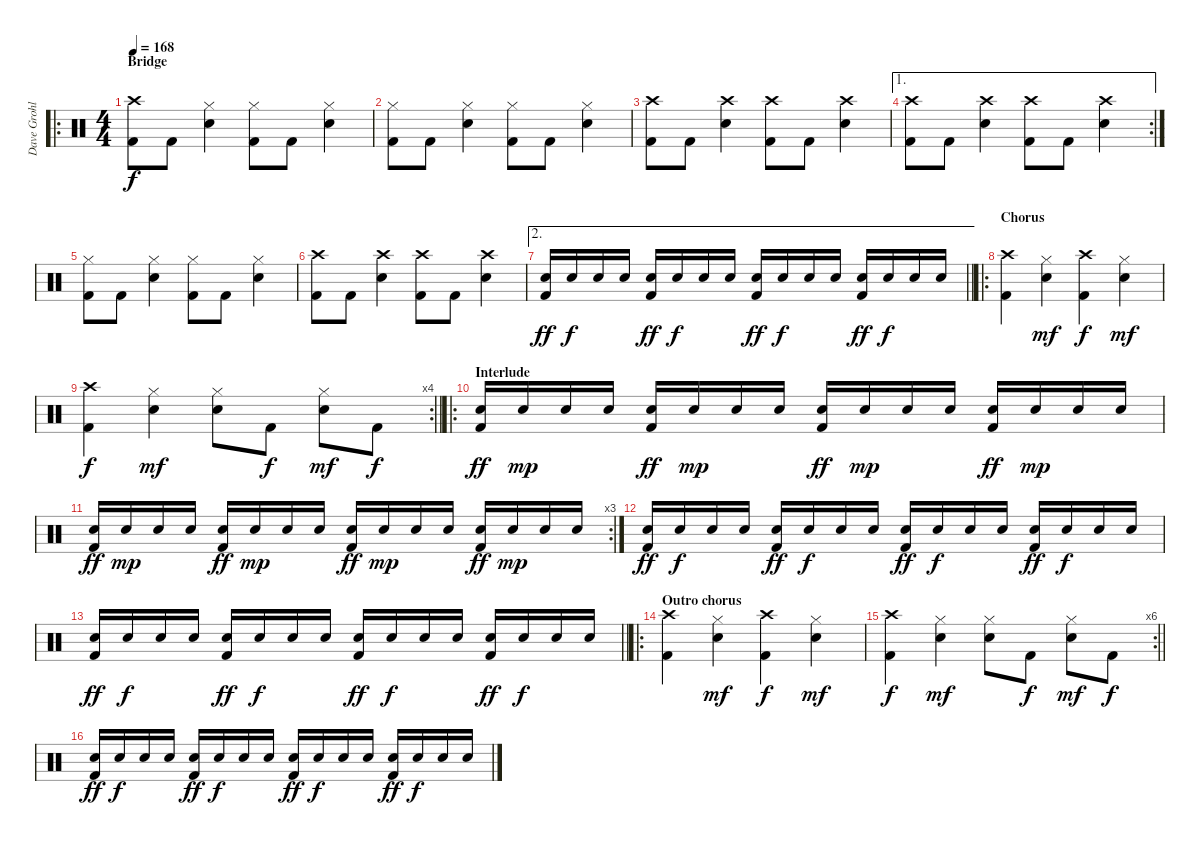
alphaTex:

\track ("Dave Grohl - Drums" "Dave Grohl") {instrument percussion}
\staff {score}
\articulation defaults
\ro
\ts (4 4)
\section ("" "Bridge")
\tempo 168
\clef neutral
\ks c
("Crash high (hit)" "Kick (hit) 2").8{dy f} "Kick (hit) 2".8 ("Hi-Hat (closed)" "Electric Snare (hit)").4 ("Hi-Hat (closed)" "Kick (hit) 2").8 "Kick (hit) 2".8 ("Hi-Hat (closed)" "Electric Snare (hit)").4 |
("Hi-Hat (closed)" "Kick (hit) 2").8 "Kick (hit) 2".8 ("Hi-Hat (closed)" "Electric Snare (hit)").4 ("Hi-Hat (closed)" "Kick (hit) 2").8 "Kick (hit) 2".8 ("Hi-Hat (closed)" "Electric Snare (hit)").4 |
("Crash high (hit)" "Kick (hit) 2").8 "Kick (hit) 2".8 ("Crash high (hit)" "Electric Snare (hit)").4 ("Crash high (hit)" "Kick (hit) 2").8 "Kick (hit) 2".8 ("Crash high (hit)" "Electric Snare (hit)").4 |
\ae 1
\rc 2
("Crash high (hit)" "Kick (hit) 2").8 "Kick (hit) 2".8 ("Crash high (hit)" "Electric Snare (hit)").4 ("Crash high (hit)" "Kick (hit) 2").8 "Kick (hit) 2".8 ("Crash high (hit)" "Electric Snare (hit)").4 |
("Hi-Hat (closed)" "Kick (hit) 2").8 "Kick (hit) 2".8 ("Hi-Hat (closed)" "Electric Snare (hit)").4 ("Hi-Hat (closed)" "Kick (hit) 2").8 "Kick (hit) 2".8 ("Hi-Hat (closed)" "Electric Snare (hit)").4 |
("Crash high (hit)" "Kick (hit) 2").8 "Kick (hit) 2".8 ("Crash high (hit)" "Electric Snare (hit)").4 ("Crash high (hit)" "Kick (hit) 2").8 "Kick (hit) 2".8 ("Crash high (hit)" "Electric Snare (hit)").4 |
\ae 2
\barLineRight lightlight
("Electric Snare (hit)" "Kick (hit) 2").16{dy ff} "Electric Snare (hit)".16{dy f} "Electric Snare (hit)".16 "Electric Snare (hit)".16 ("Electric Snare (hit)" "Kick (hit) 2").16{dy ff} "Electric Snare (hit)".16{dy f} "Electric Snare (hit)".16 "Electric Snare (hit)".16 ("Electric Snare (hit)" "Kick (hit) 2").16{dy ff} "Electric Snare (hit)".16{dy f} "Electric Snare (hit)".16 "Electric Snare (hit)".16 ("Electric Snare (hit)" "Kick (hit) 2").16{dy ff} "Electric Snare (hit)".16{dy f} "Electric Snare (hit)".16 "Electric Snare (hit)".16 |
\ro
\section ("" "Chorus")
("Crash high (hit)" "Kick (hit) 2").4{volume 13} ("Hi-Hat (closed)" "Electric Snare (hit)").4{dy mf} ("Crash high (hit)" "Kick (hit) 2").4{dy f} ("Hi-Hat (closed)" "Electric Snare (hit)").4{dy mf} |
\rc 4
\barLineRight lightlight
("Crash high (hit)" "Kick (hit) 2").4{dy f} ("Hi-Hat (closed)" "Electric Snare (hit)").4{dy mf} ("Hi-Hat (closed)" "Electric Snare (hit)").8 "Kick (hit) 2".8{dy f} ("Hi-Hat (closed)" "Electric Snare (hit)").8{dy mf} "Kick (hit) 2".8{dy f} |
\ro
\section ("" "Interlude")
("Electric Snare (hit)" "Kick (hit) 2").16{dy ff} "Electric Snare (hit)".16{dy mp} "Electric Snare (hit)".16 "Electric Snare (hit)".16 ("Electric Snare (hit)" "Kick (hit) 2").16{dy ff} "Electric Snare (hit)".16{dy mp} "Electric Snare (hit)".16 "Electric Snare (hit)".16 ("Electric Snare (hit)" "Kick (hit) 2").16{dy ff} "Electric Snare (hit)".16{dy mp} "Electric Snare (hit)".16 "Electric Snare (hit)".16 ("Electric Snare (hit)" "Kick (hit) 2").16{dy ff} "Electric Snare (hit)".16{dy mp} "Electric Snare (hit)".16 "Electric Snare (hit)".16 |
\rc 3
("Electric Snare (hit)" "Kick (hit) 2").16{dy ff} "Electric Snare (hit)".16{dy mp} "Electric Snare (hit)".16 "Electric Snare (hit)".16 ("Electric Snare (hit)" "Kick (hit) 2").16{dy ff} "Electric Snare (hit)".16{dy mp} "Electric Snare (hit)".16 "Electric Snare (hit)".16 ("Electric Snare (hit)" "Kick (hit) 2").16{dy ff} "Electric Snare (hit)".16{dy mp} "Electric Snare (hit)".16 "Electric Snare (hit)".16 ("Electric Snare (hit)" "Kick (hit) 2").16{dy ff} "Electric Snare (hit)".16{dy mp} "Electric Snare (hit)".16 "Electric Snare (hit)".16 |
("Electric Snare (hit)" "Kick (hit) 2").16{dy ff} "Electric Snare (hit)".16{dy f} "Electric Snare (hit)".16 "Electric Snare (hit)".16 ("Electric Snare (hit)" "Kick (hit) 2").16{dy ff} "Electric Snare (hit)".16{dy f} "Electric Snare (hit)".16 "Electric Snare (hit)".16 ("Electric Snare (hit)" "Kick (hit) 2").16{dy ff} "Electric Snare (hit)".16{dy f} "Electric Snare (hit)".16 "Electric Snare (hit)".16 ("Electric Snare (hit)" "Kick (hit) 2").16{dy ff} "Electric Snare (hit)".16{dy f} "Electric Snare (hit)".16 "Electric Snare (hit)".16 |
\barLineRight lightlight
("Electric Snare (hit)" "Kick (hit) 2").16{dy ff} "Electric Snare (hit)".16{dy f} "Electric Snare (hit)".16 "Electric Snare (hit)".16 ("Electric Snare (hit)" "Kick (hit) 2").16{dy ff} "Electric Snare (hit)".16{dy f} "Electric Snare (hit)".16 "Electric Snare (hit)".16 ("Electric Snare (hit)" "Kick (hit) 2").16{dy ff} "Electric Snare (hit)".16{dy f} "Electric Snare (hit)".16 "Electric Snare (hit)".16 ("Electric Snare (hit)" "Kick (hit) 2").16{dy ff} "Electric Snare (hit)".16{dy f} "Electric Snare (hit)".16 "Electric Snare (hit)".16 |
\ro
\section ("" "Outro chorus")
("Crash high (hit)" "Kick (hit) 2").4{volume 13} ("Hi-Hat (closed)" "Electric Snare (hit)").4{dy mf} ("Crash high (hit)" "Kick (hit) 2").4{dy f} ("Hi-Hat (closed)" "Electric Snare (hit)").4{dy mf} |
\rc 6
\barLineRight lightlight
("Crash high (hit)" "Kick (hit) 2").4{dy f} ("Hi-Hat (closed)" "Electric Snare (hit)").4{dy mf} ("Hi-Hat (closed)" "Electric Snare (hit)").8 "Kick (hit) 2".8{dy f} ("Hi-Hat (closed)" "Electric Snare (hit)").8{dy mf} "Kick (hit) 2".8{dy f} |
("Electric Snare (hit)" "Kick (hit) 2").16{dy ff} "Electric Snare (hit)".16{dy f} "Electric Snare (hit)".16 "Electric Snare (hit)".16 ("Electric Snare (hit)" "Kick (hit) 2").16{dy ff} "Electric Snare (hit)".16{dy f} "Electric Snare (hit)".16 "Electric Snare (hit)".16 ("Electric Snare (hit)" "Kick (hit) 2").16{dy ff} "Electric Snare (hit)".16{dy f} "Electric Snare (hit)".16 "Electric Snare (hit)".16 ("Electric Snare (hit)" "Kick (hit) 2").16{dy ff} "Electric Snare (hit)".16{dy f} "Electric Snare (hit)".16 "Electric Snare (hit)".16
